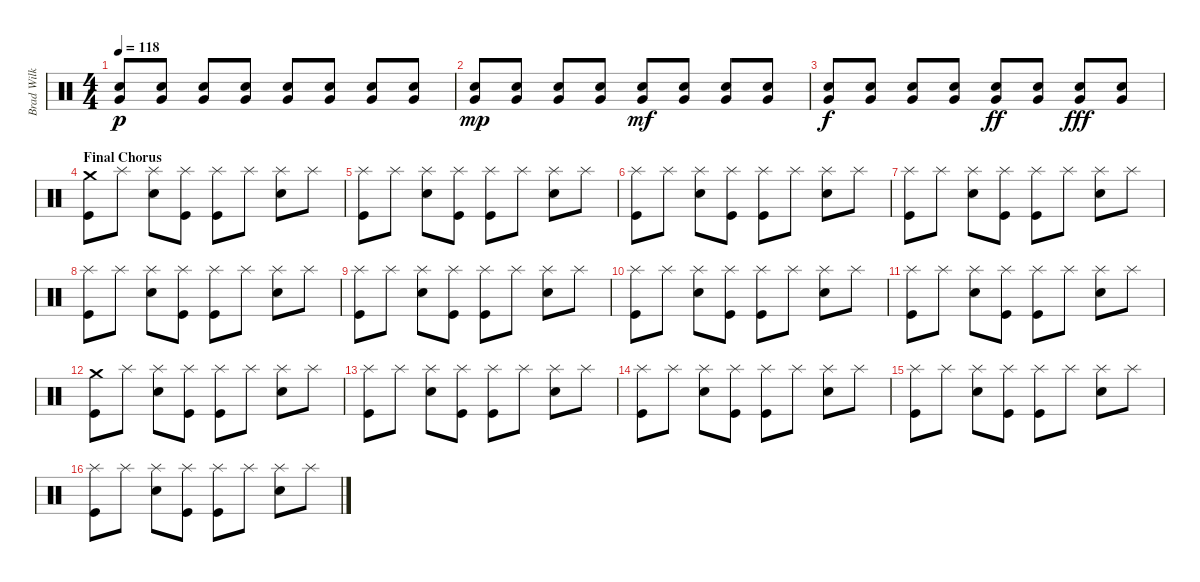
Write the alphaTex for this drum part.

\track ("Brad Wilk - Drums" "Brad Wilk ") {instrument percussion}
\staff {score}
\articulation defaults
\ts (4 4)
\tempo 118
\clef neutral
\ks c
("Snare (hit) 2" "Very Low Tom (hit)").8{dy p} ("Snare (hit) 2" "Very Low Tom (hit)").8 ("Snare (hit) 2" "Very Low Tom (hit)").8 ("Snare (hit) 2" "Very Low Tom (hit)").8 ("Snare (hit) 2" "Very Low Tom (hit)").8 ("Snare (hit) 2" "Very Low Tom (hit)").8 ("Snare (hit) 2" "Very Low Tom (hit)").8 ("Snare (hit) 2" "Very Low Tom (hit)").8 |
("Snare (hit) 2" "Very Low Tom (hit)").8{dy mp} ("Snare (hit) 2" "Very Low Tom (hit)").8 ("Snare (hit) 2" "Very Low Tom (hit)").8 ("Snare (hit) 2" "Very Low Tom (hit)").8 ("Snare (hit) 2" "Very Low Tom (hit)").8{dy mf} ("Snare (hit) 2" "Very Low Tom (hit)").8 ("Snare (hit) 2" "Very Low Tom (hit)").8 ("Snare (hit) 2" "Very Low Tom (hit)").8 |
("Snare (hit) 2" "Very Low Tom (hit)").8{dy f} ("Snare (hit) 2" "Very Low Tom (hit)").8 ("Snare (hit) 2" "Very Low Tom (hit)").8 ("Snare (hit) 2" "Very Low Tom (hit)").8 ("Snare (hit) 2" "Very Low Tom (hit)").8{dy ff} ("Snare (hit) 2" "Very Low Tom (hit)").8 ("Snare (hit) 2" "Very Low Tom (hit)").8{dy fff} ("Snare (hit) 2" "Very Low Tom (hit)").8 |
\section ("" "Final Chorus")
("Crash medium (hit)" "Kick (hit)").8 "Splash (hit)".8 ("Splash (hit)" "Snare (hit) 2").8 ("Splash (hit)" "Kick (hit)").8 ("Splash (hit)" "Kick (hit)").8 "Splash (hit)".8 ("Splash (hit)" "Snare (hit) 2").8 "Splash (hit)".8 |
("Splash (hit)" "Kick (hit)").8 "Splash (hit)".8 ("Splash (hit)" "Snare (hit) 2").8 ("Splash (hit)" "Kick (hit)").8 ("Splash (hit)" "Kick (hit)").8 "Splash (hit)".8 ("Splash (hit)" "Snare (hit) 2").8 "Splash (hit)".8 |
("Splash (hit)" "Kick (hit)").8 "Splash (hit)".8 ("Splash (hit)" "Snare (hit) 2").8 ("Splash (hit)" "Kick (hit)").8 ("Splash (hit)" "Kick (hit)").8 "Splash (hit)".8 ("Splash (hit)" "Snare (hit) 2").8 "Splash (hit)".8 |
("Splash (hit)" "Kick (hit)").8 "Splash (hit)".8 ("Splash (hit)" "Snare (hit) 2").8 ("Splash (hit)" "Kick (hit)").8 ("Splash (hit)" "Kick (hit)").8 "Splash (hit)".8 ("Splash (hit)" "Snare (hit) 2").8 "Splash (hit)".8 |
("Splash (hit)" "Kick (hit)").8 "Splash (hit)".8 ("Splash (hit)" "Snare (hit) 2").8 ("Splash (hit)" "Kick (hit)").8 ("Splash (hit)" "Kick (hit)").8 "Splash (hit)".8 ("Splash (hit)" "Snare (hit) 2").8 "Splash (hit)".8 |
("Splash (hit)" "Kick (hit)").8 "Splash (hit)".8 ("Splash (hit)" "Snare (hit) 2").8 ("Splash (hit)" "Kick (hit)").8 ("Splash (hit)" "Kick (hit)").8 "Splash (hit)".8 ("Splash (hit)" "Snare (hit) 2").8 "Splash (hit)".8 |
("Splash (hit)" "Kick (hit)").8 "Splash (hit)".8 ("Splash (hit)" "Snare (hit) 2").8 ("Splash (hit)" "Kick (hit)").8 ("Splash (hit)" "Kick (hit)").8 "Splash (hit)".8 ("Splash (hit)" "Snare (hit) 2").8 "Splash (hit)".8 |
("Splash (hit)" "Kick (hit)").8 "Splash (hit)".8 ("Splash (hit)" "Snare (hit) 2").8 ("Splash (hit)" "Kick (hit)").8 ("Splash (hit)" "Kick (hit)").8 "Splash (hit)".8 ("Splash (hit)" "Snare (hit) 2").8 "Splash (hit)".8 |
("Crash medium (hit)" "Kick (hit)").8 "Splash (hit)".8 ("Splash (hit)" "Snare (hit) 2").8 ("Splash (hit)" "Kick (hit)").8 ("Splash (hit)" "Kick (hit)").8 "Splash (hit)".8 ("Splash (hit)" "Snare (hit) 2").8 "Splash (hit)".8 |
("Splash (hit)" "Kick (hit)").8 "Splash (hit)".8 ("Splash (hit)" "Snare (hit) 2").8 ("Splash (hit)" "Kick (hit)").8 ("Splash (hit)" "Kick (hit)").8 "Splash (hit)".8 ("Splash (hit)" "Snare (hit) 2").8 "Splash (hit)".8 |
("Splash (hit)" "Kick (hit)").8 "Splash (hit)".8 ("Splash (hit)" "Snare (hit) 2").8 ("Splash (hit)" "Kick (hit)").8 ("Splash (hit)" "Kick (hit)").8 "Splash (hit)".8 ("Splash (hit)" "Snare (hit) 2").8 "Splash (hit)".8 |
("Splash (hit)" "Kick (hit)").8 "Splash (hit)".8 ("Splash (hit)" "Snare (hit) 2").8 ("Splash (hit)" "Kick (hit)").8 ("Splash (hit)" "Kick (hit)").8 "Splash (hit)".8 ("Splash (hit)" "Snare (hit) 2").8 "Splash (hit)".8 |
("Splash (hit)" "Kick (hit)").8 "Splash (hit)".8 ("Splash (hit)" "Snare (hit) 2").8 ("Splash (hit)" "Kick (hit)").8 ("Splash (hit)" "Kick (hit)").8 "Splash (hit)".8 ("Splash (hit)" "Snare (hit) 2").8 "Splash (hit)".8
